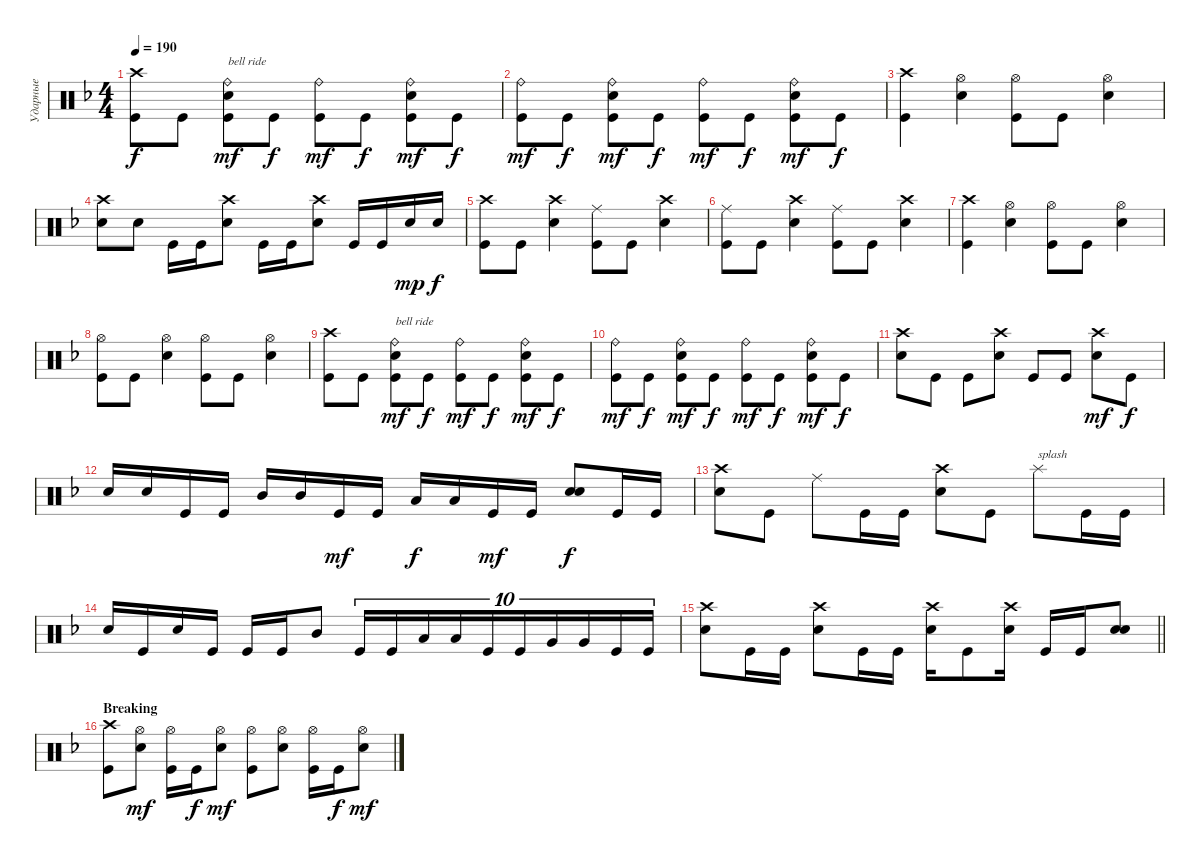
\track ("Ударные" "Ударные") {instrument percussion}
\staff {score}
\articulation defaults
\ts (4 4)
\tempo 190
\clef neutral
\ks dminor
("Kick (hit)" "Crash high (hit)").8{dy f} "Kick (hit)".8 ("Kick (hit)" "Snare (hit) 2" "Ride (bell)").8{txt "bell ride" dy mf} "Kick (hit)".8{dy f} ("Kick (hit)" "Ride (bell)").8{dy mf} "Kick (hit)".8{dy f} ("Kick (hit)" "Snare (hit) 2" "Ride (bell)").8{dy mf} "Kick (hit)".8{dy f} |
("Kick (hit)" "Ride (bell)").8{dy mf} "Kick (hit)".8{dy f} ("Kick (hit)" "Snare (hit) 2" "Ride (bell)").8{dy mf} "Kick (hit)".8{dy f} ("Kick (hit)" "Ride (bell)").8{dy mf} "Kick (hit)".8{dy f} ("Kick (hit)" "Snare (hit) 2" "Ride (bell)").8{dy mf} "Kick (hit)".8{dy f} |
("Kick (hit)" "Crash high (hit)").4 ("Snare (hit) 2" "Hi-Hat (open)").4 ("Kick (hit)" "Hi-Hat (open)").8 "Kick (hit)".8 ("Snare (hit) 2" "Hi-Hat (open)").4 |
("Crash high (hit)" "Snare (hit) 2").8 "Snare (hit) 2".8 "Kick (hit)".16 "Kick (hit)".16 ("Snare (hit) 2" "Crash high (hit)").8 "Kick (hit)".16 "Kick (hit)".16 ("Snare (hit) 2" "Crash high (hit)").8 "Kick (hit)".16 "Kick (hit)".16 "Snare (hit) 2".16{dy mp} "Snare (hit) 2".16{dy f} |
("Kick (hit)" "Crash high (hit)").8 "Kick (hit)".8 ("Snare (hit) 2" "Crash high (hit)").4 ("Kick (hit)" "Ride (middle)").8 "Kick (hit)".8 ("Snare (hit) 2" "Crash high (hit)").4 |
("Kick (hit)" "Ride (middle)").8 "Kick (hit)".8 ("Snare (hit) 2" "Crash high (hit)").4 ("Kick (hit)" "Ride (middle)").8 "Kick (hit)".8 ("Snare (hit) 2" "Crash high (hit)").4 |
("Kick (hit)" "Crash high (hit)").4 ("Snare (hit) 2" "Hi-Hat (open)").4 ("Kick (hit)" "Hi-Hat (open)").8 "Kick (hit)".8 ("Snare (hit) 2" "Hi-Hat (open)").4 |
("Kick (hit)" "Hi-Hat (open)").8 "Kick (hit)".8 ("Snare (hit) 2" "Hi-Hat (open)").4 ("Kick (hit)" "Hi-Hat (open)").8 "Kick (hit)".8 ("Snare (hit) 2" "Hi-Hat (open)").4 |
("Kick (hit)" "Crash high (hit)").8 "Kick (hit)".8 ("Kick (hit)" "Snare (hit) 2" "Ride (bell)").8{txt "bell ride" dy mf} "Kick (hit)".8{dy f} ("Kick (hit)" "Ride (bell)").8{dy mf} "Kick (hit)".8{dy f} ("Kick (hit)" "Snare (hit) 2" "Ride (bell)").8{dy mf} "Kick (hit)".8{dy f} |
("Kick (hit)" "Ride (bell)").8{dy mf} "Kick (hit)".8{dy f} ("Kick (hit)" "Snare (hit) 2" "Ride (bell)").8{dy mf} "Kick (hit)".8{dy f} ("Kick (hit)" "Ride (bell)").8{dy mf} "Kick (hit)".8{dy f} ("Kick (hit)" "Snare (hit) 2" "Ride (bell)").8{dy mf} "Kick (hit)".8{dy f} |
("Snare (hit) 2" "Crash high (hit)").8 "Kick (hit)".8 "Kick (hit)".8 ("Snare (hit) 2" "Crash high (hit)").8 "Kick (hit)".8 "Kick (hit)".8 ("Snare (hit) 2" "Crash high (hit)").8{dy mf} "Kick (hit)".8{dy f} |
"Snare (hit) 2".16 "Snare (hit) 2".16 "Kick (hit)".16 "Kick (hit)".16 "Mid Tom (hit)".16 "Mid Tom (hit)".16 "Kick (hit)".16{dy mf} "Kick (hit)".16 "Low Tom (hit)".16{dy f} "Low Tom (hit)".16 "Kick (hit)".16{dy mf} "Kick (hit)".16 ("Snare (hit) 2" "Snare (hit) 2").8{bd 240 dy f} "Kick (hit)".16 "Kick (hit)".16 |
("Snare (hit) 2" "Crash high (hit)").8 "Kick (hit)".8 "Ride (middle)".8 "Kick (hit)".16 "Kick (hit)".16 ("Snare (hit) 2" "Crash high (hit)").8 "Kick (hit)".8 "Splash (hit)".8{txt "splash"} "Kick (hit)".16 "Kick (hit)".16 |
"Snare (hit) 2".16 "Kick (hit)".16 "Snare (hit) 2".16 "Kick (hit)".16 "Kick (hit)".16 "Kick (hit)".16 "Mid Tom (hit)".8 "Kick (hit)".16{tu (10 8)} "Kick (hit)".16{tu (10 8)} "Low Tom (hit)".16{tu (10 8)} "Low Tom (hit)".16{tu (10 8)} "Kick (hit)".16{tu (10 8)} "Kick (hit)".16{tu (10 8)} "Very Low Tom (hit)".16{tu (10 8)} "Very Low Tom (hit)".16{tu (10 8)} "Kick (hit)".16{tu (10 8)} "Kick (hit)".16{tu (10 8)} |
\barLineRight lightlight
("Snare (hit) 2" "Crash high (hit)").8 "Kick (hit)".16 "Kick (hit)".16 ("Snare (hit) 2" "Crash high (hit)").8 "Kick (hit)".16 "Kick (hit)".16 ("Snare (hit) 2" "Crash high (hit)").16 "Kick (hit)".8 ("Snare (hit) 2" "Crash high (hit)").16 "Kick (hit)".16 "Kick (hit)".16 ("Snare (hit) 2" "Snare (hit) 2").8{bd 240} |
\section ("" "Breaking")
("Kick (hit)" "Crash high (hit)").8 ("Snare (hit) 2" "Hi-Hat (open)").8{dy mf} ("Kick (hit)" "Hi-Hat (open)").16 "Kick (hit)".16{dy f} ("Snare (hit) 2" "Hi-Hat (open)").8{dy mf} ("Kick (hit)" "Hi-Hat (open)").8 ("Snare (hit) 2" "Hi-Hat (open)").8 ("Kick (hit)" "Hi-Hat (open)").16 "Kick (hit)".16{dy f} ("Snare (hit) 2" "Hi-Hat (open)").8{dy mf}
